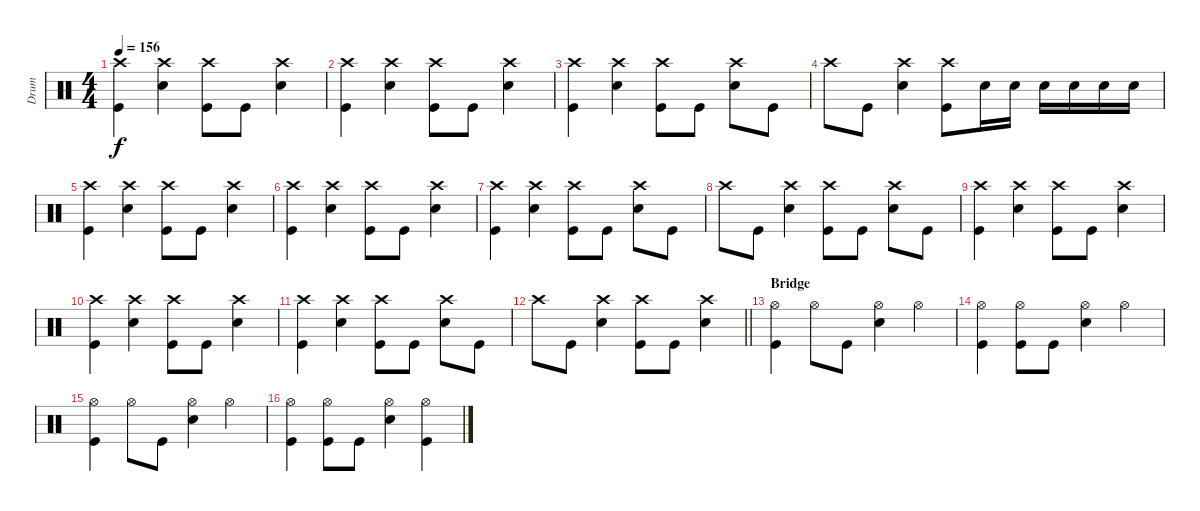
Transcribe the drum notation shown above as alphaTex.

\track ("Drum" "Drum") {instrument percussion}
\staff {score}
\articulation defaults
\ts (4 4)
\tempo 156
\clef neutral
\ks c
("Crash high (hit)" "Kick (hit)").4{dy f} ("Crash high (hit)" "Snare (hit) 2").4 ("Crash high (hit)" "Kick (hit)").8 "Kick (hit)".8 ("Crash high (hit)" "Snare (hit) 2").4 |
("Crash high (hit)" "Kick (hit)").4 ("Crash high (hit)" "Snare (hit) 2").4 ("Crash high (hit)" "Kick (hit)").8 "Kick (hit)".8 ("Crash high (hit)" "Snare (hit) 2").4 |
("Crash high (hit)" "Kick (hit)").4 ("Crash high (hit)" "Snare (hit) 2").4 ("Crash high (hit)" "Kick (hit)").8 "Kick (hit)".8 ("Crash high (hit)" "Snare (hit) 2").8 "Kick (hit)".8 |
"Crash high (hit)".8 "Kick (hit)".8 ("Crash high (hit)" "Snare (hit) 2").4 ("Crash high (hit)" "Kick (hit)").8 "Snare (hit) 2".16 "Snare (hit) 2".16 "Snare (hit) 2".16 "Snare (hit) 2".16 "Snare (hit) 2".16 "Snare (hit) 2".16 |
("Crash high (hit)" "Kick (hit)").4 ("Crash high (hit)" "Snare (hit) 2").4 ("Crash high (hit)" "Kick (hit)").8 "Kick (hit)".8 ("Crash high (hit)" "Snare (hit) 2").4 |
("Crash high (hit)" "Kick (hit)").4 ("Crash high (hit)" "Snare (hit) 2").4 ("Crash high (hit)" "Kick (hit)").8 "Kick (hit)".8 ("Crash high (hit)" "Snare (hit) 2").4 |
("Crash high (hit)" "Kick (hit)").4 ("Crash high (hit)" "Snare (hit) 2").4 ("Crash high (hit)" "Kick (hit)").8 "Kick (hit)".8 ("Crash high (hit)" "Snare (hit) 2").8 "Kick (hit)".8 |
"Crash high (hit)".8 "Kick (hit)".8 ("Crash high (hit)" "Snare (hit) 2").4 ("Crash high (hit)" "Kick (hit)").8 "Kick (hit)".8 ("Crash high (hit)" "Snare (hit) 2").8 "Kick (hit)".8 |
("Crash high (hit)" "Kick (hit)").4 ("Crash high (hit)" "Snare (hit) 2").4 ("Crash high (hit)" "Kick (hit)").8 "Kick (hit)".8 ("Crash high (hit)" "Snare (hit) 2").4 |
("Crash high (hit)" "Kick (hit)").4 ("Crash high (hit)" "Snare (hit) 2").4 ("Crash high (hit)" "Kick (hit)").8 "Kick (hit)".8 ("Crash high (hit)" "Snare (hit) 2").4 |
("Crash high (hit)" "Kick (hit)").4 ("Crash high (hit)" "Snare (hit) 2").4 ("Crash high (hit)" "Kick (hit)").8 "Kick (hit)".8 ("Crash high (hit)" "Snare (hit) 2").8 "Kick (hit)".8 |
\barLineRight lightlight "Crash high (hit)".8 "Kick (hit)".8
("Crash high (hit)" "Snare (hit) 2").4 ("Crash high (hit)" "Kick (hit)").8 "Kick (hit)".8 ("Crash high (hit)" "Snare (hit) 2").4 |
\section ("" "Bridge")
("Hi-Hat (open)" "Kick (hit)").4 "Hi-Hat (open)".8 "Kick (hit)".8 ("Hi-Hat (open)" "Snare (hit) 2").4 "Hi-Hat (open)".4 |
("Hi-Hat (open)" "Kick (hit)").4 ("Hi-Hat (open)" "Kick (hit)").8 "Kick (hit)".8 ("Hi-Hat (open)" "Snare (hit) 2").4 "Hi-Hat (open)".4 |
("Hi-Hat (open)" "Kick (hit)").4 "Hi-Hat (open)".8 "Kick (hit)".8 ("Hi-Hat (open)" "Snare (hit) 2").4 "Hi-Hat (open)".4 |
("Hi-Hat (open)" "Kick (hit)").4 ("Hi-Hat (open)" "Kick (hit)").8 "Kick (hit)".8 ("Hi-Hat (open)" "Snare (hit) 2").4 ("Hi-Hat (open)" "Kick (hit)").4
